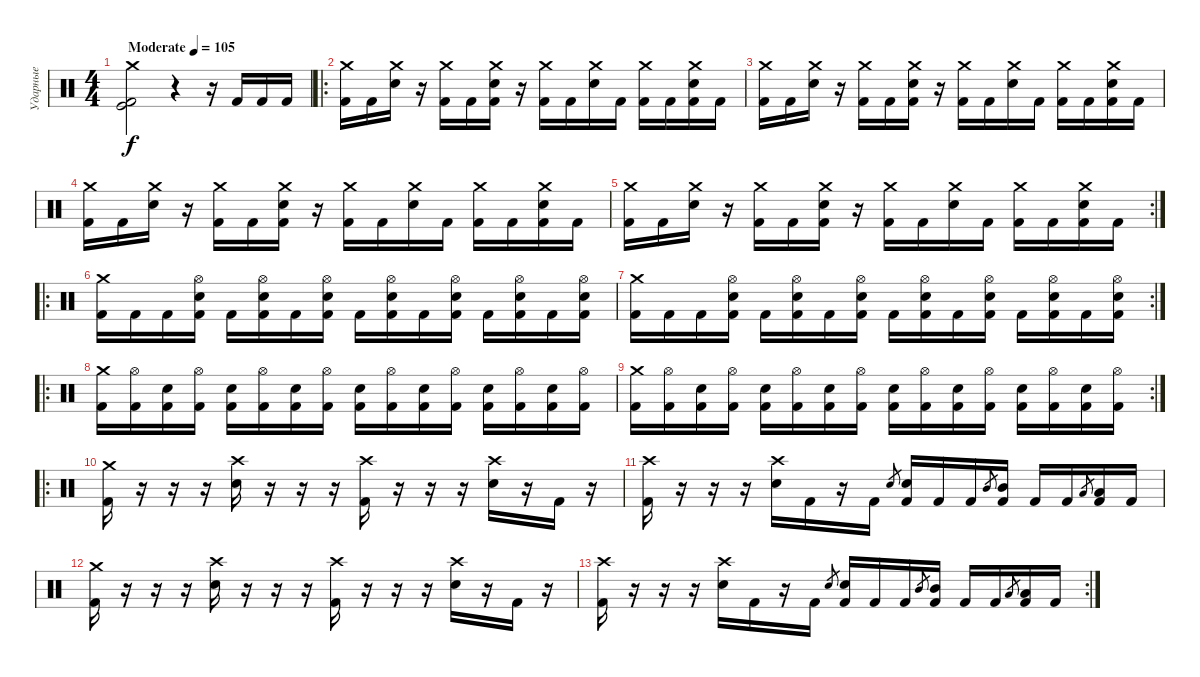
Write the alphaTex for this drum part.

\track ("Ударные" "Ударные") {instrument percussion}
\staff {score}
\articulation defaults
\ts (4 4)
\tempo (105 "Moderate")
\clef neutral
\ks c
("Crash medium (hit)" "Kick (hit)" "Kick (hit) 2").2{dy f} r.4 r.16 "Kick (hit) 2".16 "Kick (hit) 2".16 "Kick (hit) 2".16 |
\ro
("Kick (hit) 2" "Crash medium (hit)").16 "Kick (hit) 2".16 ("Electric Snare (hit)" "Crash medium (hit)").16 r.16 ("Kick (hit) 2" "Crash medium (hit)").16 "Kick (hit) 2".16 ("Kick (hit) 2" "Electric Snare (hit)" "Crash medium (hit)").16 r.16 ("Kick (hit) 2" "Crash medium (hit)").16 "Kick (hit) 2".16 ("Electric Snare (hit)" "Crash medium (hit)").16 "Kick (hit) 2".16 ("Kick (hit) 2" "Crash medium (hit)").16 "Kick (hit) 2".16 ("Kick (hit) 2" "Electric Snare (hit)" "Crash medium (hit)").16 "Kick (hit) 2".16 |
("Kick (hit) 2" "Crash medium (hit)").16 "Kick (hit) 2".16 ("Electric Snare (hit)" "Crash medium (hit)").16 r.16 ("Kick (hit) 2" "Crash medium (hit)").16 "Kick (hit) 2".16 ("Kick (hit) 2" "Electric Snare (hit)" "Crash medium (hit)").16 r.16 ("Kick (hit) 2" "Crash medium (hit)").16 "Kick (hit) 2".16 ("Electric Snare (hit)" "Crash medium (hit)").16 "Kick (hit) 2".16 ("Kick (hit) 2" "Crash medium (hit)").16 "Kick (hit) 2".16 ("Kick (hit) 2" "Electric Snare (hit)" "Crash medium (hit)").16 "Kick (hit) 2".16 |
("Kick (hit) 2" "Crash medium (hit)").16 "Kick (hit) 2".16 ("Electric Snare (hit)" "Crash medium (hit)").16 r.16 ("Kick (hit) 2" "Crash medium (hit)").16 "Kick (hit) 2".16 ("Kick (hit) 2" "Electric Snare (hit)" "Crash medium (hit)").16 r.16 ("Kick (hit) 2" "Crash medium (hit)").16 "Kick (hit) 2".16 ("Electric Snare (hit)" "Crash medium (hit)").16 "Kick (hit) 2".16 ("Kick (hit) 2" "Crash medium (hit)").16 "Kick (hit) 2".16 ("Kick (hit) 2" "Electric Snare (hit)" "Crash medium (hit)").16 "Kick (hit) 2".16 |
\rc 2
("Kick (hit) 2" "Crash medium (hit)").16 "Kick (hit) 2".16 ("Electric Snare (hit)" "Crash medium (hit)").16 r.16 ("Kick (hit) 2" "Crash medium (hit)").16 "Kick (hit) 2".16 ("Kick (hit) 2" "Electric Snare (hit)" "Crash medium (hit)").16 r.16 ("Kick (hit) 2" "Crash medium (hit)").16 "Kick (hit) 2".16 ("Electric Snare (hit)" "Crash medium (hit)").16 "Kick (hit) 2".16 ("Kick (hit) 2" "Crash medium (hit)").16 "Kick (hit) 2".16 ("Kick (hit) 2" "Electric Snare (hit)" "Crash medium (hit)").16 "Kick (hit) 2".16 |
\ro
("Kick (hit) 2" "Crash medium (hit)").16 "Kick (hit) 2".16 "Kick (hit) 2".16 ("Kick (hit) 2" "Electric Snare (hit)" "Hi-Hat (open)").16 "Kick (hit) 2".16 ("Kick (hit) 2" "Electric Snare (hit)" "Hi-Hat (open)").16 "Kick (hit) 2".16 ("Kick (hit) 2" "Electric Snare (hit)" "Hi-Hat (open)").16 "Kick (hit) 2".16 ("Kick (hit) 2" "Electric Snare (hit)" "Hi-Hat (open)").16 "Kick (hit) 2".16 ("Kick (hit) 2" "Electric Snare (hit)" "Hi-Hat (open)").16 "Kick (hit) 2".16 ("Kick (hit) 2" "Electric Snare (hit)" "Hi-Hat (open)").16 "Kick (hit) 2".16 ("Kick (hit) 2" "Electric Snare (hit)" "Hi-Hat (open)").16 |
\rc 2
("Kick (hit) 2" "Crash medium (hit)").16 "Kick (hit) 2".16 "Kick (hit) 2".16 ("Kick (hit) 2" "Electric Snare (hit)" "Hi-Hat (open)").16 "Kick (hit) 2".16 ("Kick (hit) 2" "Electric Snare (hit)" "Hi-Hat (open)").16 "Kick (hit) 2".16 ("Kick (hit) 2" "Electric Snare (hit)" "Hi-Hat (open)").16 "Kick (hit) 2".16 ("Kick (hit) 2" "Electric Snare (hit)" "Hi-Hat (open)").16 "Kick (hit) 2".16 ("Kick (hit) 2" "Electric Snare (hit)" "Hi-Hat (open)").16 "Kick (hit) 2".16 ("Kick (hit) 2" "Electric Snare (hit)" "Hi-Hat (open)").16 "Kick (hit) 2".16 ("Kick (hit) 2" "Electric Snare (hit)" "Hi-Hat (open)").16 |
\ro
("Kick (hit) 2" "Crash medium (hit)").16 ("Kick (hit) 2" "Hi-Hat (open)").16 ("Kick (hit) 2" "Electric Snare (hit)").16 ("Kick (hit) 2" "Hi-Hat (open)").16 ("Kick (hit) 2" "Electric Snare (hit)").16 ("Kick (hit) 2" "Hi-Hat (open)").16 ("Kick (hit) 2" "Electric Snare (hit)").16 ("Kick (hit) 2" "Hi-Hat (open)").16 ("Kick (hit) 2" "Electric Snare (hit)").16 ("Kick (hit) 2" "Hi-Hat (open)").16 ("Kick (hit) 2" "Electric Snare (hit)").16 ("Kick (hit) 2" "Hi-Hat (open)").16 ("Kick (hit) 2" "Electric Snare (hit)").16 ("Kick (hit) 2" "Hi-Hat (open)").16 ("Kick (hit) 2" "Electric Snare (hit)").16 ("Kick (hit) 2" "Hi-Hat (open)").16 |
\rc 2
("Kick (hit) 2" "Crash medium (hit)").16 ("Kick (hit) 2" "Hi-Hat (open)").16 ("Kick (hit) 2" "Electric Snare (hit)").16 ("Kick (hit) 2" "Hi-Hat (open)").16 ("Kick (hit) 2" "Electric Snare (hit)").16 ("Kick (hit) 2" "Hi-Hat (open)").16 ("Kick (hit) 2" "Electric Snare (hit)").16 ("Kick (hit) 2" "Hi-Hat (open)").16 ("Kick (hit) 2" "Electric Snare (hit)").16 ("Kick (hit) 2" "Hi-Hat (open)").16 ("Kick (hit) 2" "Electric Snare (hit)").16 ("Kick (hit) 2" "Hi-Hat (open)").16 ("Kick (hit) 2" "Electric Snare (hit)").16 ("Kick (hit) 2" "Hi-Hat (open)").16 ("Kick (hit) 2" "Electric Snare (hit)").16 ("Kick (hit) 2" "Hi-Hat (open)").16 |
\ro
("Kick (hit) 2" "Crash medium (hit)").16 r.16 r.16 r.16 ("Electric Snare (hit)" "Crash high (hit)").16 r.16 r.16 r.16 ("Kick (hit) 2" "Crash high (hit)").16 r.16 r.16 r.16 ("Electric Snare (hit)" "Crash high (hit)").16 r.16 "Kick (hit) 2".16 r.16 |
("Kick (hit) 2" "Crash high (hit)").16 r.16 r.16 r.16 ("Electric Snare (hit)" "Crash high (hit)").16 "Kick (hit) 2".16 r.16 "Kick (hit) 2".16 "Electric Snare (hit)".8{gr} ("Kick (hit) 2" "Electric Snare (hit)").16 "Kick (hit) 2".16 "Kick (hit) 2".16 "Mid Tom (hit)".8{gr} ("Kick (hit) 2" "Mid Tom (hit)").16 "Kick (hit) 2".16 "Kick (hit) 2".16 "Low Tom (hit)".8{gr} ("Kick (hit) 2" "Low Tom (hit)").16 "Kick (hit) 2".16 |
("Kick (hit) 2" "Crash medium (hit)").16 r.16 r.16 r.16 ("Electric Snare (hit)" "Crash high (hit)").16 r.16 r.16 r.16 ("Kick (hit) 2" "Crash high (hit)").16 r.16 r.16 r.16 ("Electric Snare (hit)" "Crash high (hit)").16 r.16 "Kick (hit) 2".16 r.16 |
\rc 2
("Kick (hit) 2" "Crash high (hit)").16 r.16 r.16 r.16 ("Electric Snare (hit)" "Crash high (hit)").16 "Kick (hit) 2".16 r.16 "Kick (hit) 2".16 "Electric Snare (hit)".8{gr} ("Kick (hit) 2" "Electric Snare (hit)").16 "Kick (hit) 2".16 "Kick (hit) 2".16 "Mid Tom (hit)".8{gr} ("Kick (hit) 2" "Mid Tom (hit)").16 "Kick (hit) 2".16 "Kick (hit) 2".16 "Low Tom (hit)".8{gr} ("Kick (hit) 2" "Low Tom (hit)").16 "Kick (hit) 2".16
